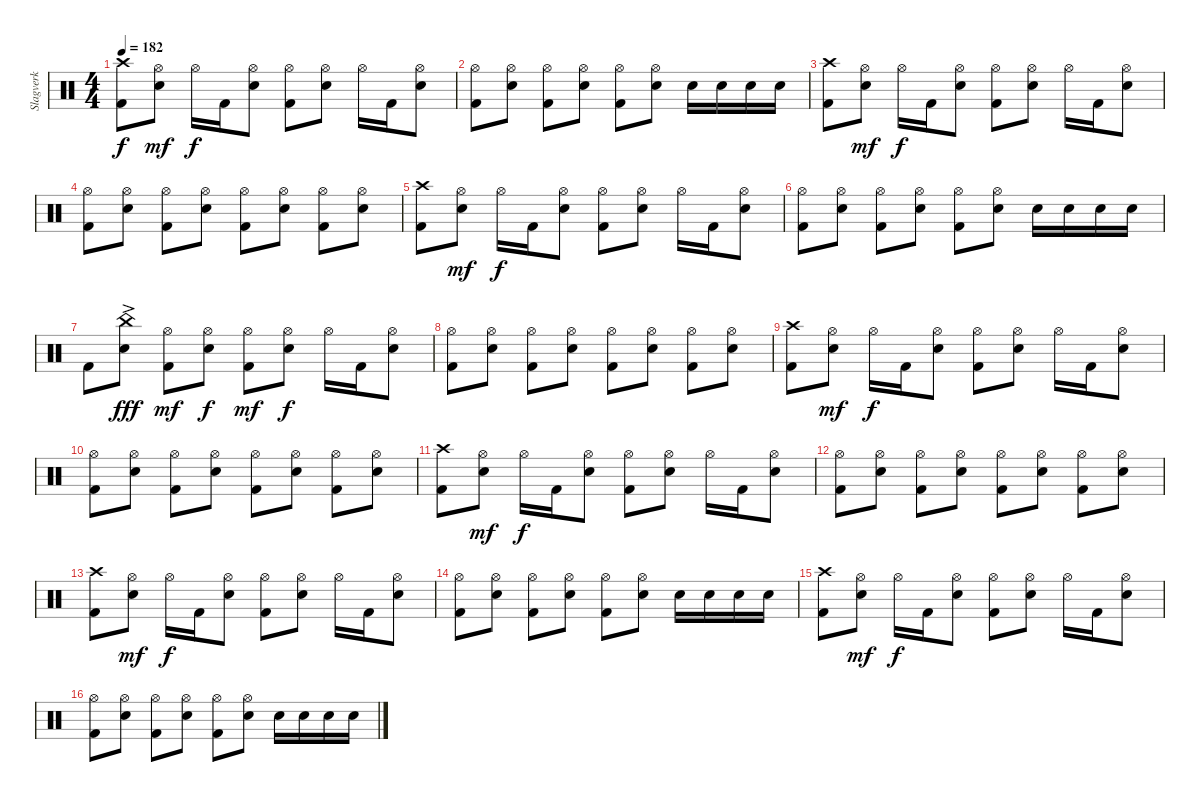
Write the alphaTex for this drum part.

\track ("Slagverk" "Slagverk") {instrument percussion}
\staff {score}
\articulation defaults
\ts (4 4)
\tempo 182
\clef neutral
\ks c
("Crash high (hit)" "Kick (hit) 2").8{dy f} ("Hi-Hat (open)" "Electric Snare (hit)").8{dy mf} "Hi-Hat (open)".16{dy f} "Kick (hit) 2".16 ("Hi-Hat (open)" "Electric Snare (hit)").8 ("Hi-Hat (open)" "Kick (hit) 2").8 ("Hi-Hat (open)" "Electric Snare (hit)").8 "Hi-Hat (open)".16 "Kick (hit) 2".16 ("Hi-Hat (open)" "Electric Snare (hit)").8 |
("Hi-Hat (open)" "Kick (hit) 2").8 ("Hi-Hat (open)" "Electric Snare (hit)").8 ("Hi-Hat (open)" "Kick (hit) 2").8 ("Hi-Hat (open)" "Electric Snare (hit)").8 ("Hi-Hat (open)" "Kick (hit) 2").8 ("Hi-Hat (open)" "Electric Snare (hit)").8 "Electric Snare (hit)".16 "Electric Snare (hit)".16 "Electric Snare (hit)".16 "Electric Snare (hit)".16 |
("Crash high (hit)" "Kick (hit) 2").8 ("Hi-Hat (open)" "Electric Snare (hit)").8{dy mf} "Hi-Hat (open)".16{dy f} "Kick (hit) 2".16 ("Hi-Hat (open)" "Electric Snare (hit)").8 ("Hi-Hat (open)" "Kick (hit) 2").8 ("Hi-Hat (open)" "Electric Snare (hit)").8 "Hi-Hat (open)".16 "Kick (hit) 2".16 ("Hi-Hat (open)" "Electric Snare (hit)").8 |
("Hi-Hat (open)" "Kick (hit) 2").8 ("Hi-Hat (open)" "Electric Snare (hit)").8 ("Hi-Hat (open)" "Kick (hit) 2").8 ("Hi-Hat (open)" "Electric Snare (hit)").8 ("Hi-Hat (open)" "Kick (hit) 2").8 ("Hi-Hat (open)" "Electric Snare (hit)").8 ("Hi-Hat (open)" "Kick (hit) 2").8 ("Hi-Hat (open)" "Electric Snare (hit)").8 |
("Crash high (hit)" "Kick (hit) 2").8 ("Hi-Hat (open)" "Electric Snare (hit)").8{dy mf} "Hi-Hat (open)".16{dy f} "Kick (hit) 2".16 ("Hi-Hat (open)" "Electric Snare (hit)").8 ("Hi-Hat (open)" "Kick (hit) 2").8 ("Hi-Hat (open)" "Electric Snare (hit)").8 "Hi-Hat (open)".16 "Kick (hit) 2".16 ("Hi-Hat (open)" "Electric Snare (hit)").8 |
("Hi-Hat (open)" "Kick (hit) 2").8 ("Hi-Hat (open)" "Electric Snare (hit)").8 ("Hi-Hat (open)" "Kick (hit) 2").8 ("Hi-Hat (open)" "Electric Snare (hit)").8 ("Hi-Hat (open)" "Kick (hit) 2").8 ("Hi-Hat (open)" "Electric Snare (hit)").8 "Electric Snare (hit)".16 "Electric Snare (hit)".16 "Electric Snare (hit)".16 "Electric Snare (hit)".16 |
"Kick (hit) 2".8 ("China (hit)" "Electric Snare (hit)"{ac}).8{dy fff} ("Hi-Hat (open)" "Kick (hit) 2").8{dy mf} ("Hi-Hat (open)" "Electric Snare (hit)").8{dy f} ("Hi-Hat (open)" "Kick (hit) 2").8{dy mf} ("Hi-Hat (open)" "Electric Snare (hit)").8{dy f} "Hi-Hat (open)".16 "Kick (hit) 2".16 ("Hi-Hat (open)" "Electric Snare (hit)").8 |
("Hi-Hat (open)" "Kick (hit) 2").8 ("Hi-Hat (open)" "Electric Snare (hit)").8 ("Hi-Hat (open)" "Kick (hit) 2").8 ("Hi-Hat (open)" "Electric Snare (hit)").8 ("Hi-Hat (open)" "Kick (hit) 2").8 ("Hi-Hat (open)" "Electric Snare (hit)").8 ("Hi-Hat (open)" "Kick (hit) 2").8 ("Hi-Hat (open)" "Electric Snare (hit)").8 |
("Crash high (hit)" "Kick (hit) 2").8 ("Hi-Hat (open)" "Electric Snare (hit)").8{dy mf} "Hi-Hat (open)".16{dy f} "Kick (hit) 2".16 ("Hi-Hat (open)" "Electric Snare (hit)").8 ("Hi-Hat (open)" "Kick (hit) 2").8 ("Hi-Hat (open)" "Electric Snare (hit)").8 "Hi-Hat (open)".16 "Kick (hit) 2".16 ("Hi-Hat (open)" "Electric Snare (hit)").8 |
("Hi-Hat (open)" "Kick (hit) 2").8 ("Hi-Hat (open)" "Electric Snare (hit)").8 ("Hi-Hat (open)" "Kick (hit) 2").8 ("Hi-Hat (open)" "Electric Snare (hit)").8 ("Hi-Hat (open)" "Kick (hit) 2").8 ("Hi-Hat (open)" "Electric Snare (hit)").8 ("Hi-Hat (open)" "Kick (hit) 2").8 ("Hi-Hat (open)" "Electric Snare (hit)").8 |
("Crash high (hit)" "Kick (hit) 2").8 ("Hi-Hat (open)" "Electric Snare (hit)").8{dy mf} "Hi-Hat (open)".16{dy f} "Kick (hit) 2".16 ("Hi-Hat (open)" "Electric Snare (hit)").8 ("Hi-Hat (open)" "Kick (hit) 2").8 ("Hi-Hat (open)" "Electric Snare (hit)").8 "Hi-Hat (open)".16 "Kick (hit) 2".16 ("Hi-Hat (open)" "Electric Snare (hit)").8 |
("Hi-Hat (open)" "Kick (hit) 2").8 ("Hi-Hat (open)" "Electric Snare (hit)").8 ("Hi-Hat (open)" "Kick (hit) 2").8 ("Hi-Hat (open)" "Electric Snare (hit)").8 ("Hi-Hat (open)" "Kick (hit) 2").8 ("Hi-Hat (open)" "Electric Snare (hit)").8 ("Hi-Hat (open)" "Kick (hit) 2").8 ("Hi-Hat (open)" "Electric Snare (hit)").8 |
("Crash high (hit)" "Kick (hit) 2").8 ("Hi-Hat (open)" "Electric Snare (hit)").8{dy mf} "Hi-Hat (open)".16{dy f} "Kick (hit) 2".16 ("Hi-Hat (open)" "Electric Snare (hit)").8 ("Hi-Hat (open)" "Kick (hit) 2").8 ("Hi-Hat (open)" "Electric Snare (hit)").8 "Hi-Hat (open)".16 "Kick (hit) 2".16 ("Hi-Hat (open)" "Electric Snare (hit)").8 |
("Hi-Hat (open)" "Kick (hit) 2").8 ("Hi-Hat (open)" "Electric Snare (hit)").8 ("Hi-Hat (open)" "Kick (hit) 2").8 ("Hi-Hat (open)" "Electric Snare (hit)").8 ("Hi-Hat (open)" "Kick (hit) 2").8 ("Hi-Hat (open)" "Electric Snare (hit)").8 "Electric Snare (hit)".16 "Electric Snare (hit)".16 "Electric Snare (hit)".16 "Electric Snare (hit)".16 |
("Crash high (hit)" "Kick (hit) 2").8 ("Hi-Hat (open)" "Electric Snare (hit)").8{dy mf} "Hi-Hat (open)".16{dy f} "Kick (hit) 2".16 ("Hi-Hat (open)" "Electric Snare (hit)").8 ("Hi-Hat (open)" "Kick (hit) 2").8 ("Hi-Hat (open)" "Electric Snare (hit)").8 "Hi-Hat (open)".16 "Kick (hit) 2".16 ("Hi-Hat (open)" "Electric Snare (hit)").8 |
("Hi-Hat (open)" "Kick (hit) 2").8 ("Hi-Hat (open)" "Electric Snare (hit)").8 ("Hi-Hat (open)" "Kick (hit) 2").8 ("Hi-Hat (open)" "Electric Snare (hit)").8 ("Hi-Hat (open)" "Kick (hit) 2").8 ("Hi-Hat (open)" "Electric Snare (hit)").8 "Electric Snare (hit)".16 "Electric Snare (hit)".16 "Electric Snare (hit)".16 "Electric Snare (hit)".16
